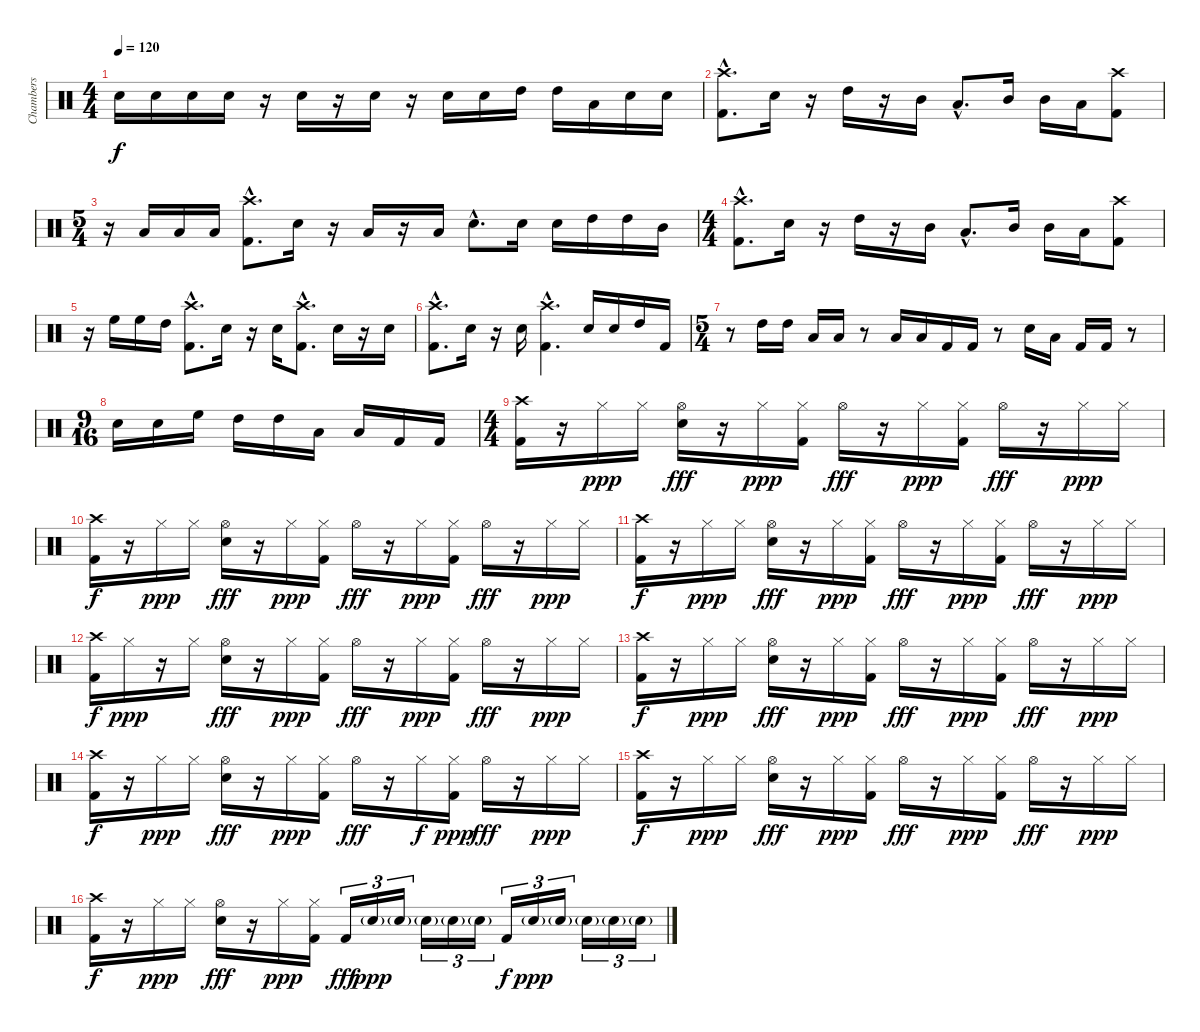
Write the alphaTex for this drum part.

\track ("Chambers" "Chambers") {instrument percussion}
\staff {score}
\articulation defaults
\ts (4 4)
\tempo 120
\clef neutral
\ks c "Electric Snare (hit)".16{dy f} "Electric Snare (hit)".16 "Electric Snare (hit)".16 "Electric Snare (hit)".16
r.16 "Electric Snare (hit)".16 r.16 "Electric Snare (hit)".16 r.16 "Electric Snare (hit)".16 "Electric Snare (hit)".16 "High Tom (hit)".16 "High Tom (hit)".16 "Low Tom (hit)".16 "Electric Snare (hit)".16 "Electric Snare (hit)".16 |
("Crash high (hit)"{hac} "Kick (hit) 2"{hac}).8{d} "Electric Snare (hit)".16 r.16 "High Tom (hit)".16 r.16 "Mid Tom (hit)".16 "Low Tom (hit)"{hac}.8{d} "Mid Tom (hit)".16 "Mid Tom (hit)".16 "Low Tom (hit)".16 ("Crash high (hit)" "Kick (hit) 2").8 |
\ts (5 4)
r.16 "Low Tom (hit)".16 "Low Tom (hit)".16 "Low Tom (hit)".16 ("Crash high (hit)"{hac} "Kick (hit) 2"{hac}).8{d} "Electric Snare (hit)".16 r.16 "Low Tom (hit)".16 r.16 "Low Tom (hit)".16 "Electric Snare (hit)"{hac}.8{d} "Electric Snare (hit)".16 "Electric Snare (hit)".16 "High Tom (hit)".16 "High Tom (hit)".16 "Mid Tom (hit)".16 |
\ts (4 4)
("Crash high (hit)"{hac} "Kick (hit) 2"{hac}).8{d} "Electric Snare (hit)".16 r.16 "High Tom (hit)".16 r.16 "Mid Tom (hit)".16 "Low Tom (hit)"{hac}.8{d} "Mid Tom (hit)".16 "Mid Tom (hit)".16 "Low Tom (hit)".16 ("Crash high (hit)" "Kick (hit) 2").8 |
r.16 "High Floor Tom (hit)".16 "High Floor Tom (hit)".16 "High Tom (hit)".16 ("Crash high (hit)"{hac} "Kick (hit) 2"{hac}).8{d} "Electric Snare (hit)".16 r.16 "Electric Snare (hit)".16 ("Crash high (hit)"{hac} "Kick (hit) 2"{hac}).8{d} "Electric Snare (hit)".16 r.16 "Electric Snare (hit)".16 |
("Crash high (hit)"{hac} "Kick (hit) 2"{hac}).8{d} "Electric Snare (hit)".16 r.16 "Electric Snare (hit)".16 ("Crash high (hit)"{hac} "Kick (hit) 2"{hac}).4{d} "Electric Snare (hit)".16 "Electric Snare (hit)".16 "High Tom (hit)".16 "Kick (hit) 2".16 |
\ts (5 4)
r.8 "High Tom (hit)".16 "High Tom (hit)".16 "Low Tom (hit)".16 "Low Tom (hit)".16 r.8 "Low Tom (hit)".16 "Low Tom (hit)".16 "Kick (hit) 2".16 "Kick (hit) 2".16 r.8 "Electric Snare (hit)".16 "Low Tom (hit)".16 "Kick (hit) 2".16 "Kick (hit) 2".16 r.8 |
\ts (9 16)
"Electric Snare (hit)".16 "Electric Snare (hit)".16 "High Floor Tom (hit)".16 "High Tom (hit)".16 "High Tom (hit)".16 "Low Tom (hit)".16 "Low Tom (hit)".16 "Kick (hit) 2".16 "Kick (hit) 2".16 |
\ts (4 4)
("Crash high (hit)" "Kick (hit) 2").16 r.16 "Hi-Hat (closed)".16{dy ppp} "Hi-Hat (closed)".16 ("Hi-Hat (open)" "Electric Snare (hit)").16{dy fff} r.16 "Hi-Hat (closed)".16{dy ppp} ("Hi-Hat (closed)" "Kick (hit) 2").16 "Hi-Hat (open)".16{dy fff} r.16 "Hi-Hat (closed)".16{dy ppp} ("Hi-Hat (closed)" "Kick (hit) 2").16 "Hi-Hat (open)".16{dy fff} r.16 "Hi-Hat (closed)".16{dy ppp} "Hi-Hat (closed)".16 |
("Crash high (hit)" "Kick (hit) 2").16{dy f} r.16 "Hi-Hat (closed)".16{dy ppp} "Hi-Hat (closed)".16 ("Hi-Hat (open)" "Electric Snare (hit)").16{dy fff} r.16 "Hi-Hat (closed)".16{dy ppp} ("Hi-Hat (closed)" "Kick (hit) 2").16 "Hi-Hat (open)".16{dy fff} r.16 "Hi-Hat (closed)".16{dy ppp} ("Hi-Hat (closed)" "Kick (hit) 2").16 "Hi-Hat (open)".16{dy fff} r.16 "Hi-Hat (closed)".16{dy ppp} "Hi-Hat (closed)".16 |
("Crash high (hit)" "Kick (hit) 2").16{dy f} r.16 "Hi-Hat (closed)".16{dy ppp} "Hi-Hat (closed)".16 ("Hi-Hat (open)" "Electric Snare (hit)").16{dy fff} r.16 "Hi-Hat (closed)".16{dy ppp} ("Hi-Hat (closed)" "Kick (hit) 2").16 "Hi-Hat (open)".16{dy fff} r.16 "Hi-Hat (closed)".16{dy ppp} ("Hi-Hat (closed)" "Kick (hit) 2").16 "Hi-Hat (open)".16{dy fff} r.16 "Hi-Hat (closed)".16{dy ppp} "Hi-Hat (closed)".16 |
("Crash high (hit)" "Kick (hit) 2").16{dy f} "Hi-Hat (closed)".16{dy ppp} r.16 "Hi-Hat (closed)".16 ("Hi-Hat (open)" "Electric Snare (hit)").16{dy fff} r.16 "Hi-Hat (closed)".16{dy ppp} ("Hi-Hat (closed)" "Kick (hit) 2").16 "Hi-Hat (open)".16{dy fff} r.16 "Hi-Hat (closed)".16{dy ppp} ("Hi-Hat (closed)" "Kick (hit) 2").16 "Hi-Hat (open)".16{dy fff} r.16 "Hi-Hat (closed)".16{dy ppp} "Hi-Hat (closed)".16 |
("Crash high (hit)" "Kick (hit) 2").16{dy f} r.16 "Hi-Hat (closed)".16{dy ppp} "Hi-Hat (closed)".16 ("Hi-Hat (open)" "Electric Snare (hit)").16{dy fff} r.16 "Hi-Hat (closed)".16{dy ppp} ("Hi-Hat (closed)" "Kick (hit) 2").16 "Hi-Hat (open)".16{dy fff} r.16 "Hi-Hat (closed)".16{dy ppp} ("Hi-Hat (closed)" "Kick (hit) 2").16 "Hi-Hat (open)".16{dy fff} r.16 "Hi-Hat (closed)".16{dy ppp} "Hi-Hat (closed)".16 |
("Crash high (hit)" "Kick (hit) 2").16{dy f} r.16 "Hi-Hat (closed)".16{dy ppp} "Hi-Hat (closed)".16 ("Hi-Hat (open)" "Electric Snare (hit)").16{dy fff} r.16 "Hi-Hat (closed)".16{dy ppp} ("Hi-Hat (closed)" "Kick (hit) 2").16 "Hi-Hat (open)".16{dy fff} r.16 "Hi-Hat (closed)".16{dy f} ("Hi-Hat (closed)" "Kick (hit) 2").16{dy ppp} "Hi-Hat (open)".16{dy fff} r.16 "Hi-Hat (closed)".16{dy ppp} "Hi-Hat (closed)".16 |
("Crash high (hit)" "Kick (hit) 2").16{dy f} r.16 "Hi-Hat (closed)".16{dy ppp} "Hi-Hat (closed)".16 ("Hi-Hat (open)" "Electric Snare (hit)").16{dy fff} r.16 "Hi-Hat (closed)".16{dy ppp} ("Hi-Hat (closed)" "Kick (hit) 2").16 "Hi-Hat (open)".16{dy fff} r.16 "Hi-Hat (closed)".16{dy ppp} ("Hi-Hat (closed)" "Kick (hit) 2").16 "Hi-Hat (open)".16{dy fff} r.16 "Hi-Hat (closed)".16{dy ppp} "Hi-Hat (closed)".16 |
("Crash high (hit)" "Kick (hit) 2").16{dy f} r.16 "Hi-Hat (closed)".16{dy ppp} "Hi-Hat (closed)".16 ("Hi-Hat (open)" "Electric Snare (hit)").16{dy fff} r.16 "Hi-Hat (closed)".16{dy ppp} ("Hi-Hat (closed)" "Kick (hit) 2").16 "Kick (hit) 2".16{tu (3 2) dy fff} "Electric Snare (hit)"{g}.16{tu (3 2) dy ppp} "Electric Snare (hit)"{g}.16{tu (3 2)} "Electric Snare (hit)"{g}.16{tu (3 2)} "Electric Snare (hit)"{g}.16{tu (3 2)} "Electric Snare (hit)"{g}.16{tu (3 2)} "Kick (hit) 2".16{tu (3 2) dy f} "Electric Snare (hit)"{g}.16{tu (3 2) dy ppp} "Electric Snare (hit)"{g}.16{tu (3 2)} "Electric Snare (hit)"{g}.16{tu (3 2)} "Electric Snare (hit)"{g}.16{tu (3 2)} "Electric Snare (hit)"{g}.16{tu (3 2)}
